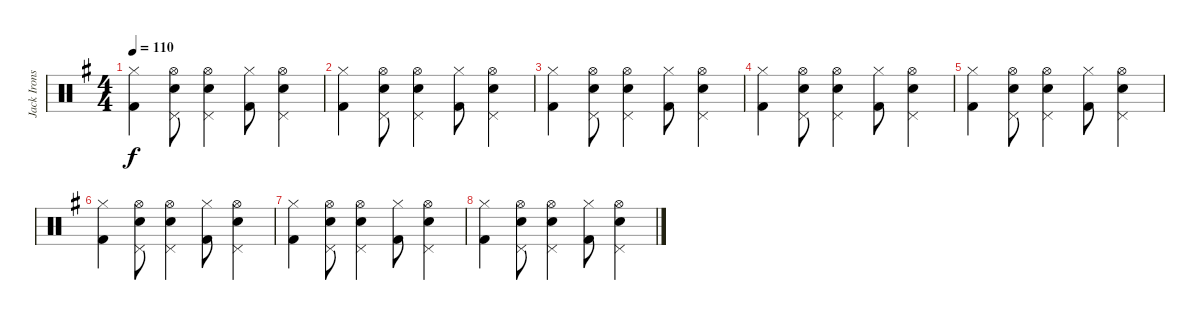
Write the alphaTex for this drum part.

\track ("Jack Irons" "Jack Irons") {instrument percussion}
\staff {score}
\articulation defaults
\ts (4 4)
\tempo 110
\clef neutral
\ks g
("Hi-Hat (closed)" "Kick (hit) 2").4{dy f} ("Hi-Hat (open)" "Snare (hit) 2" "Pedal Hi-Hat (hit)").8 ("Hi-Hat (open)" "Snare (hit) 2" "Pedal Hi-Hat (hit)").4 ("Hi-Hat (closed)" "Kick (hit) 2").8 ("Hi-Hat (open)" "Snare (hit) 2" "Pedal Hi-Hat (hit)").4 |
("Hi-Hat (closed)" "Kick (hit) 2").4 ("Hi-Hat (open)" "Snare (hit) 2" "Pedal Hi-Hat (hit)").8 ("Hi-Hat (open)" "Snare (hit) 2" "Pedal Hi-Hat (hit)").4 ("Hi-Hat (closed)" "Kick (hit) 2").8 ("Hi-Hat (open)" "Snare (hit) 2" "Pedal Hi-Hat (hit)").4 |
("Hi-Hat (closed)" "Kick (hit) 2").4 ("Hi-Hat (open)" "Snare (hit) 2" "Pedal Hi-Hat (hit)").8 ("Hi-Hat (open)" "Snare (hit) 2" "Pedal Hi-Hat (hit)").4 ("Hi-Hat (closed)" "Kick (hit) 2").8 ("Hi-Hat (open)" "Snare (hit) 2" "Pedal Hi-Hat (hit)").4 |
("Hi-Hat (closed)" "Kick (hit) 2").4 ("Hi-Hat (open)" "Snare (hit) 2" "Pedal Hi-Hat (hit)").8 ("Hi-Hat (open)" "Snare (hit) 2" "Pedal Hi-Hat (hit)").4 ("Hi-Hat (closed)" "Kick (hit) 2").8 ("Hi-Hat (open)" "Snare (hit) 2" "Pedal Hi-Hat (hit)").4 |
("Hi-Hat (closed)" "Kick (hit) 2").4 ("Hi-Hat (open)" "Snare (hit) 2" "Pedal Hi-Hat (hit)").8 ("Hi-Hat (open)" "Snare (hit) 2" "Pedal Hi-Hat (hit)").4 ("Hi-Hat (closed)" "Kick (hit) 2").8 ("Hi-Hat (open)" "Snare (hit) 2" "Pedal Hi-Hat (hit)").4 |
("Hi-Hat (closed)" "Kick (hit) 2").4 ("Hi-Hat (open)" "Snare (hit) 2" "Pedal Hi-Hat (hit)").8 ("Hi-Hat (open)" "Snare (hit) 2" "Pedal Hi-Hat (hit)").4 ("Hi-Hat (closed)" "Kick (hit) 2").8 ("Hi-Hat (open)" "Snare (hit) 2" "Pedal Hi-Hat (hit)").4 |
("Hi-Hat (closed)" "Kick (hit) 2").4 ("Hi-Hat (open)" "Snare (hit) 2" "Pedal Hi-Hat (hit)").8 ("Hi-Hat (open)" "Snare (hit) 2" "Pedal Hi-Hat (hit)").4 ("Hi-Hat (closed)" "Kick (hit) 2").8 ("Hi-Hat (open)" "Snare (hit) 2" "Pedal Hi-Hat (hit)").4 |
("Hi-Hat (closed)" "Kick (hit) 2").4 ("Hi-Hat (open)" "Snare (hit) 2" "Pedal Hi-Hat (hit)").8 ("Hi-Hat (open)" "Snare (hit) 2" "Pedal Hi-Hat (hit)").4 ("Hi-Hat (closed)" "Kick (hit) 2").8 ("Hi-Hat (open)" "Snare (hit) 2" "Pedal Hi-Hat (hit)").4
